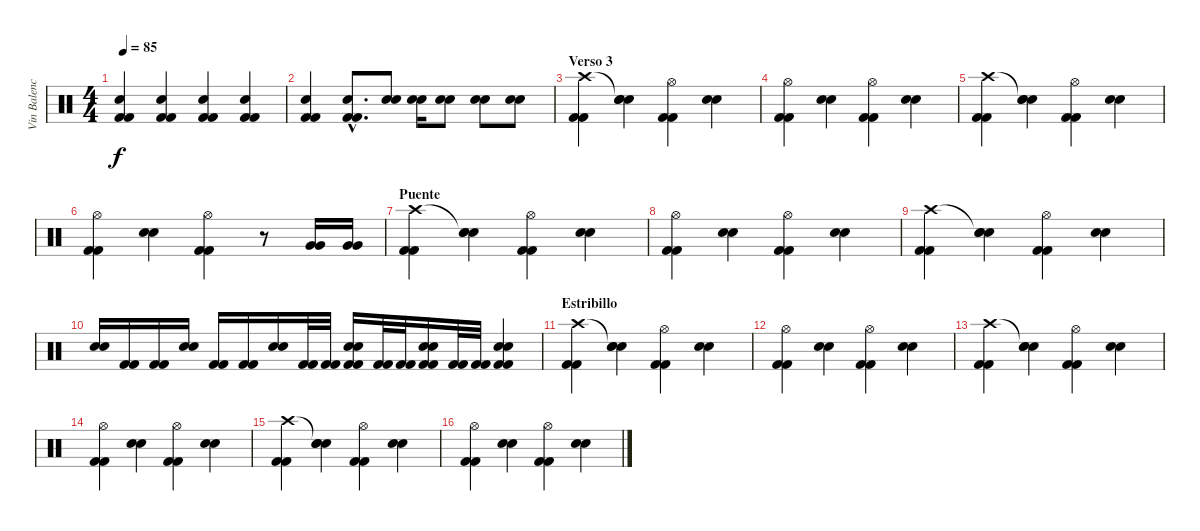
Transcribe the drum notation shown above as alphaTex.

\track ("Vin Balencia (bateria)" "Vin Balenc") {instrument percussion}
\staff {score}
\articulation defaults
\ts (4 4)
\tempo 85
\clef neutral
\ks c
("Kick (hit) 2" "Kick (hit) 2" "Snare (hit) 2").4{dy f} ("Kick (hit) 2" "Kick (hit) 2" "Snare (hit) 2").4 ("Kick (hit) 2" "Kick (hit) 2" "Snare (hit) 2").4 ("Kick (hit) 2" "Kick (hit) 2" "Snare (hit) 2").4 |
("Kick (hit) 2" "Kick (hit) 2" "Snare (hit) 2").4 ("Kick (hit) 2"{hac} "Kick (hit) 2"{hac} "Snare (hit) 2"{hac}).8{d} ("Electric Snare (hit)" "Snare (hit) 2").8 ("Electric Snare (hit)" "Snare (hit) 2").16 ("Electric Snare (hit)" "Snare (hit) 2").8 ("Electric Snare (hit)" "Snare (hit) 2").8 ("Electric Snare (hit)" "Snare (hit) 2").8 |
\section ("" "Verso 3")
("Crash high (hit)" "Kick (hit) 2" "Kick (hit) 2").4 ("Snare (hit)"{t} "Snare (hit) 2" "Snare (hit) 2").4 ("Hi-Hat (open)" "Kick (hit) 2" "Kick (hit) 2").4 ("Snare (hit) 2" "Snare (hit) 2").4 |
("Hi-Hat (open)" "Kick (hit) 2" "Kick (hit) 2").4 ("Snare (hit) 2" "Snare (hit) 2").4 ("Hi-Hat (open)" "Kick (hit) 2" "Kick (hit) 2").4 ("Snare (hit) 2" "Snare (hit) 2").4 |
("Crash high (hit)" "Kick (hit) 2" "Kick (hit) 2").4 ("Snare (hit)"{t} "Snare (hit) 2" "Snare (hit) 2").4 ("Hi-Hat (open)" "Kick (hit) 2" "Kick (hit) 2").4 ("Snare (hit) 2" "Snare (hit) 2").4 |
("Hi-Hat (open)" "Kick (hit) 2" "Kick (hit) 2").4 ("Snare (hit) 2" "Snare (hit) 2").4 ("Hi-Hat (open)" "Kick (hit) 2" "Kick (hit) 2").4 r.8 ("Very Low Tom (hit)" "Very Low Tom (hit)").16 ("Very Low Tom (hit)" "Very Low Tom (hit)").16 |
\section ("" "Puente")
("Crash high (hit)" "Kick (hit) 2" "Kick (hit) 2").4 ("Snare (hit)"{t} "Snare (hit) 2" "Snare (hit) 2").4 ("Hi-Hat (open)" "Kick (hit) 2" "Kick (hit) 2").4 ("Snare (hit) 2" "Snare (hit) 2").4 |
("Hi-Hat (open)" "Kick (hit) 2" "Kick (hit) 2").4 ("Snare (hit) 2" "Snare (hit) 2").4 ("Hi-Hat (open)" "Kick (hit) 2" "Kick (hit) 2").4 ("Snare (hit) 2" "Snare (hit) 2").4 |
("Crash high (hit)" "Kick (hit) 2" "Kick (hit) 2").4 ("Snare (hit)"{t} "Snare (hit) 2" "Snare (hit) 2").4 ("Hi-Hat (open)" "Kick (hit) 2" "Kick (hit) 2").4 ("Snare (hit) 2" "Snare (hit) 2").4 |
("Electric Snare (hit)" "Snare (hit) 2").16 ("Kick (hit) 2" "Kick (hit) 2").16 ("Kick (hit) 2" "Kick (hit) 2").16 ("Snare (hit) 2" "Snare (hit) 2").16 ("Kick (hit) 2" "Kick (hit) 2").16 ("Kick (hit) 2" "Kick (hit) 2").16 ("Snare (hit) 2" "Snare (hit) 2").16 ("Kick (hit) 2" "Kick (hit) 2").32 ("Kick (hit) 2" "Kick (hit) 2").32 ("Snare (hit) 2" "Snare (hit) 2" "Kick (hit) 2" "Kick (hit) 2").16 ("Kick (hit) 2" "Kick (hit) 2").32 ("Kick (hit) 2" "Kick (hit) 2").32 ("Snare (hit) 2" "Snare (hit) 2" "Kick (hit) 2" "Kick (hit) 2").16 ("Kick (hit) 2" "Kick (hit) 2").32 ("Kick (hit) 2" "Kick (hit) 2").32 ("Snare (hit) 2" "Snare (hit) 2" "Kick (hit) 2" "Kick (hit) 2").4 |
\section ("" "Estribillo")
("Crash high (hit)" "Kick (hit) 2" "Kick (hit) 2").4 ("Snare (hit)"{t} "Snare (hit) 2" "Snare (hit) 2").4 ("Hi-Hat (open)" "Kick (hit) 2" "Kick (hit) 2").4 ("Snare (hit) 2" "Snare (hit) 2").4 |
("Hi-Hat (open)" "Kick (hit) 2" "Kick (hit) 2").4 ("Snare (hit) 2" "Snare (hit) 2").4 ("Hi-Hat (open)" "Kick (hit) 2" "Kick (hit) 2").4 ("Snare (hit) 2" "Snare (hit) 2").4 |
("Crash high (hit)" "Kick (hit) 2" "Kick (hit) 2").4 ("Snare (hit)"{t} "Snare (hit) 2" "Snare (hit) 2").4 ("Hi-Hat (open)" "Kick (hit) 2" "Kick (hit) 2").4 ("Snare (hit) 2" "Snare (hit) 2").4 |
("Hi-Hat (open)" "Kick (hit) 2" "Kick (hit) 2").4 ("Snare (hit) 2" "Snare (hit) 2").4 ("Hi-Hat (open)" "Kick (hit) 2" "Kick (hit) 2").4 ("Snare (hit) 2" "Snare (hit) 2").4 |
("Crash high (hit)" "Kick (hit) 2" "Kick (hit) 2").4 ("Snare (hit)"{t} "Snare (hit) 2" "Snare (hit) 2").4 ("Hi-Hat (open)" "Kick (hit) 2" "Kick (hit) 2").4 ("Snare (hit) 2" "Snare (hit) 2").4 |
("Hi-Hat (open)" "Kick (hit) 2" "Kick (hit) 2").4 ("Snare (hit) 2" "Snare (hit) 2").4 ("Hi-Hat (open)" "Kick (hit) 2" "Kick (hit) 2").4 ("Snare (hit) 2" "Snare (hit) 2").4
